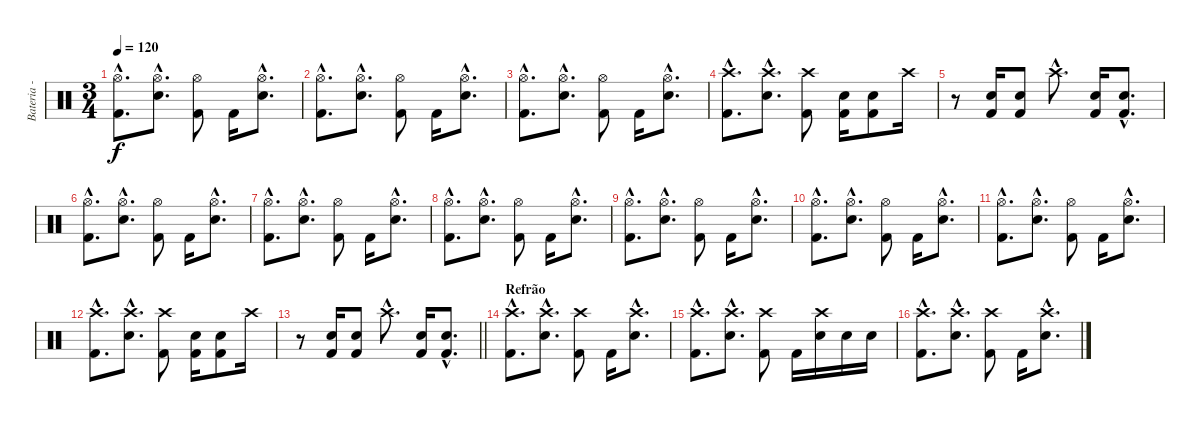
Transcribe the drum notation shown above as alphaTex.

\track ("Bateria - Larzon" "Bateria - ") {instrument percussion}
\staff {score}
\articulation defaults
\ts (3 4)
\tempo 120
\clef neutral
\ks c
("Kick (hit) 2"{hac} "Hi-Hat (open)"{hac}).8{d dy f} ("Snare (hit) 2"{hac} "Hi-Hat (open)"{hac}).8{d} ("Kick (hit) 2" "Hi-Hat (open)").8 "Kick (hit) 2".16 ("Snare (hit) 2"{hac} "Hi-Hat (open)"{hac}).8{d} |
("Kick (hit) 2"{hac} "Hi-Hat (open)"{hac}).8{d} ("Snare (hit) 2"{hac} "Hi-Hat (open)"{hac}).8{d} ("Kick (hit) 2" "Hi-Hat (open)").8 "Kick (hit) 2".16 ("Snare (hit) 2"{hac} "Hi-Hat (open)"{hac}).8{d} |
("Kick (hit) 2"{hac} "Hi-Hat (open)"{hac}).8{d} ("Snare (hit) 2"{hac} "Hi-Hat (open)"{hac}).8{d} ("Kick (hit) 2" "Hi-Hat (open)").8 "Kick (hit) 2".16 ("Snare (hit) 2"{hac} "Hi-Hat (open)"{hac}).8{d} |
("Kick (hit) 2"{hac} "Crash high (hit)"{hac}).8{d} ("Snare (hit) 2"{hac} "Crash high (hit)"{hac}).8{d} ("Kick (hit) 2" "Crash high (hit)").8 ("Snare (hit) 2" "Kick (hit) 2").16 ("Snare (hit) 2" "Kick (hit) 2").8 "Crash high (hit)".16 |
r.8 ("Snare (hit) 2" "Kick (hit) 2").16 ("Snare (hit) 2" "Kick (hit) 2").8 "Crash high (hit)"{hac}.8{d} ("Snare (hit) 2" "Kick (hit) 2").16 ("Snare (hit) 2"{hac} "Kick (hit) 2"{hac}).8{d} |
("Kick (hit) 2"{hac} "Hi-Hat (open)"{hac}).8{d} ("Snare (hit) 2"{hac} "Hi-Hat (open)"{hac}).8{d} ("Kick (hit) 2" "Hi-Hat (open)").8 "Kick (hit) 2".16 ("Snare (hit) 2"{hac} "Hi-Hat (open)"{hac}).8{d} |
("Kick (hit) 2"{hac} "Hi-Hat (open)"{hac}).8{d} ("Snare (hit) 2"{hac} "Hi-Hat (open)"{hac}).8{d} ("Kick (hit) 2" "Hi-Hat (open)").8 "Kick (hit) 2".16 ("Snare (hit) 2"{hac} "Hi-Hat (open)"{hac}).8{d} |
("Kick (hit) 2"{hac} "Hi-Hat (open)"{hac}).8{d} ("Snare (hit) 2"{hac} "Hi-Hat (open)"{hac}).8{d} ("Kick (hit) 2" "Hi-Hat (open)").8 "Kick (hit) 2".16 ("Snare (hit) 2"{hac} "Hi-Hat (open)"{hac}).8{d} |
("Kick (hit) 2"{hac} "Hi-Hat (open)"{hac}).8{d} ("Snare (hit) 2"{hac} "Hi-Hat (open)"{hac}).8{d} ("Kick (hit) 2" "Hi-Hat (open)").8 "Kick (hit) 2".16 ("Snare (hit) 2"{hac} "Hi-Hat (open)"{hac}).8{d} |
("Kick (hit) 2"{hac} "Hi-Hat (open)"{hac}).8{d} ("Snare (hit) 2"{hac} "Hi-Hat (open)"{hac}).8{d} ("Kick (hit) 2" "Hi-Hat (open)").8 "Kick (hit) 2".16 ("Snare (hit) 2"{hac} "Hi-Hat (open)"{hac}).8{d} |
("Kick (hit) 2"{hac} "Hi-Hat (open)"{hac}).8{d} ("Snare (hit) 2"{hac} "Hi-Hat (open)"{hac}).8{d} ("Kick (hit) 2" "Hi-Hat (open)").8 "Kick (hit) 2".16 ("Snare (hit) 2"{hac} "Hi-Hat (open)"{hac}).8{d} |
("Kick (hit) 2"{hac} "Crash high (hit)"{hac}).8{d} ("Snare (hit) 2"{hac} "Crash high (hit)"{hac}).8{d} ("Kick (hit) 2" "Crash high (hit)").8 ("Snare (hit) 2" "Kick (hit) 2").16 ("Snare (hit) 2" "Kick (hit) 2").8 "Crash high (hit)".16 |
\barLineRight lightlight
r.8 ("Snare (hit) 2" "Kick (hit) 2").16 ("Snare (hit) 2" "Kick (hit) 2").8 "Crash high (hit)"{hac}.8{d} ("Snare (hit) 2" "Kick (hit) 2").16 ("Snare (hit) 2"{hac} "Kick (hit) 2"{hac}).8{d} |
\section ("" "Refrão")
("Kick (hit) 2"{hac} "Crash high (hit)"{hac}).8{d} ("Snare (hit) 2"{hac} "Crash high (hit)"{hac}).8{d} ("Kick (hit) 2" "Crash high (hit)").8 "Kick (hit) 2".16 ("Snare (hit) 2"{hac} "Crash high (hit)"{hac}).8{d} |
("Kick (hit) 2"{hac} "Crash high (hit)"{hac}).8{d} ("Snare (hit) 2"{hac} "Crash high (hit)"{hac}).8{d} ("Kick (hit) 2" "Crash high (hit)").8 "Kick (hit) 2".16 ("Snare (hit) 2" "Crash high (hit)").16 "Snare (hit) 2".16 "Snare (hit) 2".16 |
("Kick (hit) 2"{hac} "Crash high (hit)"{hac}).8{d} ("Snare (hit) 2"{hac} "Crash high (hit)"{hac}).8{d} ("Kick (hit) 2" "Crash high (hit)").8 "Kick (hit) 2".16 ("Snare (hit) 2"{hac} "Crash high (hit)"{hac}).8{d}
